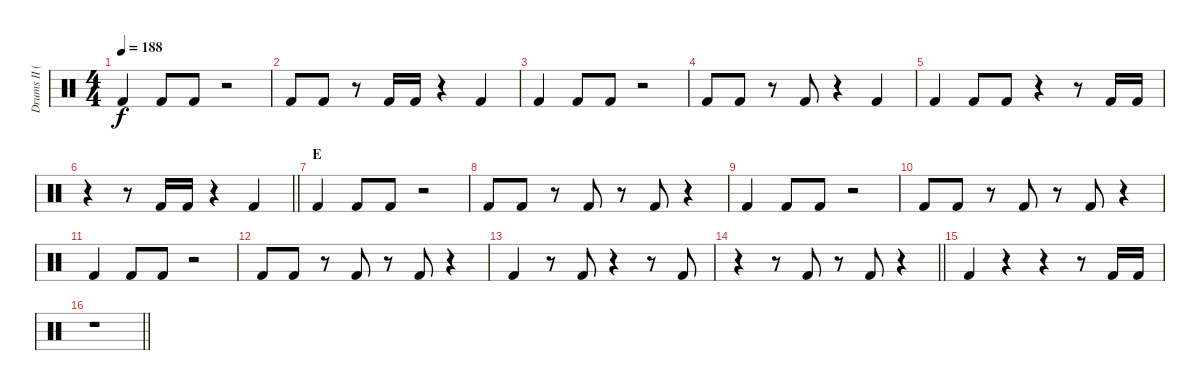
\track ("Drums II (Ruka)" "Drums II (") {instrument percussion}
\staff {score}
\articulation defaults
\ts (4 4)
\tempo 188
\clef neutral
\ks c "Kick (hit) 2".4{dy f} "Kick (hit) 2".8 "Kick (hit) 2".8
r.2 |
"Kick (hit) 2".8 "Kick (hit) 2".8 r.8 "Kick (hit) 2".16 "Kick (hit) 2".16 r.4 "Kick (hit) 2".4 |
"Kick (hit) 2".4 "Kick (hit) 2".8 "Kick (hit) 2".8 r.2 |
"Kick (hit) 2".8 "Kick (hit) 2".8 r.8 "Kick (hit) 2".8 r.4 "Kick (hit) 2".4 |
"Kick (hit) 2".4 "Kick (hit) 2".8 "Kick (hit) 2".8 r.4 r.8 "Kick (hit) 2".16 "Kick (hit) 2".16 |
\barLineRight lightlight
r.4 r.8 "Kick (hit) 2".16 "Kick (hit) 2".16 r.4 "Kick (hit) 2".4 |
\section ("" "E")
"Kick (hit) 2".4 "Kick (hit) 2".8 "Kick (hit) 2".8 r.2 |
"Kick (hit) 2".8 "Kick (hit) 2".8 r.8 "Kick (hit) 2".8 r.8 "Kick (hit) 2".8 r.4 |
"Kick (hit) 2".4 "Kick (hit) 2".8 "Kick (hit) 2".8 r.2 |
"Kick (hit) 2".8 "Kick (hit) 2".8 r.8 "Kick (hit) 2".8 r.8 "Kick (hit) 2".8 r.4 |
"Kick (hit) 2".4 "Kick (hit) 2".8 "Kick (hit) 2".8 r.2 |
"Kick (hit) 2".8 "Kick (hit) 2".8 r.8 "Kick (hit) 2".8 r.8 "Kick (hit) 2".8 r.4 |
"Kick (hit) 2".4 r.8 "Kick (hit) 2".8 r.4 r.8 "Kick (hit) 2".8 |
\barLineRight lightlight
r.4 r.8 "Kick (hit) 2".8 r.8 "Kick (hit) 2".8 r.4 |
"Kick (hit) 2".4 r.4 r.4 r.8 "Kick (hit) 2".16 "Kick (hit) 2".16 |
\barLineRight lightlight
r.1
